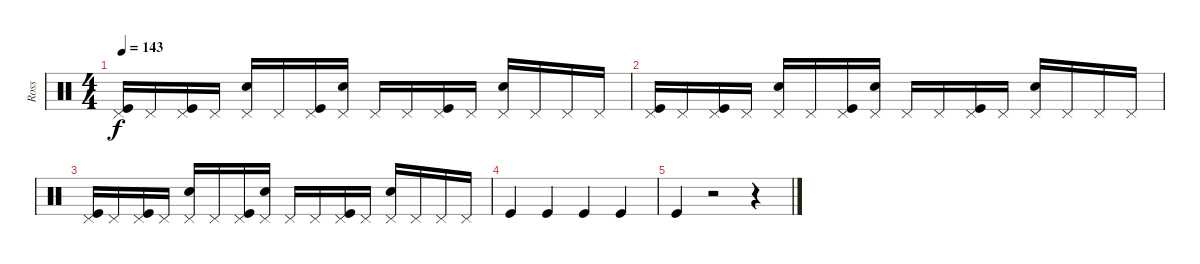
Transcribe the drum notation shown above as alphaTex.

\track ("Ross" "Ross") {instrument percussion}
\staff {score}
\articulation defaults
\ts (4 4)
\tempo 143
\clef neutral
\ks c
("Pedal Hi-Hat (hit)" "Kick (hit)").16{dy f} "Pedal Hi-Hat (hit)".16 ("Pedal Hi-Hat (hit)" "Kick (hit)").16 "Pedal Hi-Hat (hit)".16 ("Pedal Hi-Hat (hit)" "Snare (hit) 2").16 "Pedal Hi-Hat (hit)".16 ("Pedal Hi-Hat (hit)" "Kick (hit)").16 ("Pedal Hi-Hat (hit)" "Snare (hit) 2").16 "Pedal Hi-Hat (hit)".16 "Pedal Hi-Hat (hit)".16 ("Pedal Hi-Hat (hit)" "Kick (hit)").16 "Pedal Hi-Hat (hit)".16 ("Pedal Hi-Hat (hit)" "Snare (hit) 2").16 "Pedal Hi-Hat (hit)".16 "Pedal Hi-Hat (hit)".16 "Pedal Hi-Hat (hit)".16 |
("Pedal Hi-Hat (hit)" "Kick (hit)").16 "Pedal Hi-Hat (hit)".16 ("Pedal Hi-Hat (hit)" "Kick (hit)").16 "Pedal Hi-Hat (hit)".16 ("Pedal Hi-Hat (hit)" "Snare (hit) 2").16 "Pedal Hi-Hat (hit)".16 ("Pedal Hi-Hat (hit)" "Kick (hit)").16 ("Pedal Hi-Hat (hit)" "Snare (hit) 2").16 "Pedal Hi-Hat (hit)".16 "Pedal Hi-Hat (hit)".16 ("Pedal Hi-Hat (hit)" "Kick (hit)").16 "Pedal Hi-Hat (hit)".16 ("Pedal Hi-Hat (hit)" "Snare (hit) 2").16 "Pedal Hi-Hat (hit)".16 "Pedal Hi-Hat (hit)".16 "Pedal Hi-Hat (hit)".16 |
("Pedal Hi-Hat (hit)" "Kick (hit)").16 "Pedal Hi-Hat (hit)".16 ("Pedal Hi-Hat (hit)" "Kick (hit)").16 "Pedal Hi-Hat (hit)".16 ("Pedal Hi-Hat (hit)" "Snare (hit) 2").16 "Pedal Hi-Hat (hit)".16 ("Pedal Hi-Hat (hit)" "Kick (hit)").16 ("Pedal Hi-Hat (hit)" "Snare (hit) 2").16 "Pedal Hi-Hat (hit)".16 "Pedal Hi-Hat (hit)".16 ("Pedal Hi-Hat (hit)" "Kick (hit)").16 "Pedal Hi-Hat (hit)".16 ("Pedal Hi-Hat (hit)" "Snare (hit) 2").16 "Pedal Hi-Hat (hit)".16 "Pedal Hi-Hat (hit)".16 "Pedal Hi-Hat (hit)".16 |
"Kick (hit)".4 "Kick (hit)".4 "Kick (hit)".4 "Kick (hit)".4 |
"Kick (hit)".4 r.2 r.4
